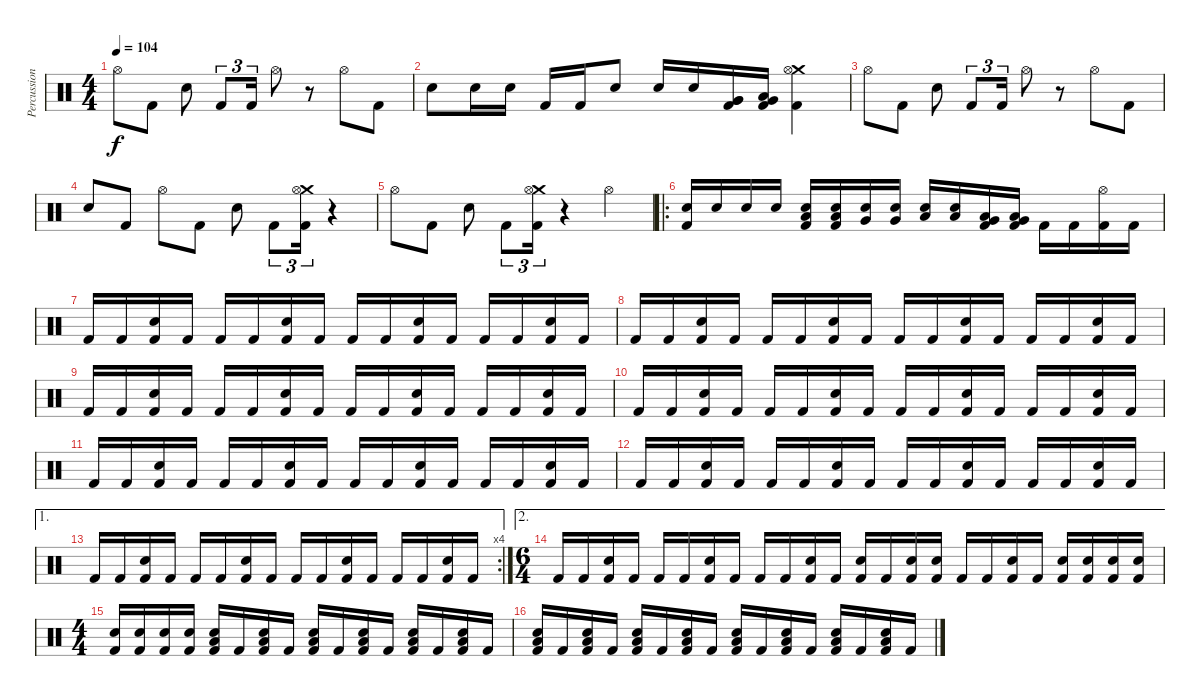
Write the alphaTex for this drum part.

\track ("Percussion" "Percussion") {instrument percussion}
\staff {score}
\articulation defaults
\ts (4 4)
\tempo 104
\clef neutral
\ks c "Hi-Hat (open)".8{dy f} "Kick (hit) 2".8 "Snare (hit) 2".8 "Kick (hit) 2".8{tu (3 2)} "Kick (hit) 2".16{tu (3 2)} "Hi-Hat (open)".8
r.8 "Hi-Hat (open)".8 "Kick (hit) 2".8 |
"Snare (hit) 2".8 "Snare (hit) 2".16 "Snare (hit) 2".16 "Kick (hit) 2".16 "Kick (hit) 2".16 "Snare (hit) 2".8 "Snare (hit) 2".16 "Snare (hit) 2".16 ("Very Low Tom (hit)" "Very Low Tom (hit)" "Kick (hit) 2").16 ("Low Floor Tom (hit)" "Very Low Tom (hit)" "Kick (hit) 2").16 ("Crash medium (hit)" "Hi-Hat (open)" "Kick (hit) 2").4 |
"Hi-Hat (open)".8 "Kick (hit) 2".8 "Snare (hit) 2".8 "Kick (hit) 2".8{tu (3 2)} "Kick (hit) 2".16{tu (3 2)} "Hi-Hat (open)".8 r.8 "Hi-Hat (open)".8 "Kick (hit) 2".8 |
"Snare (hit) 2".8 "Kick (hit) 2".8 "Hi-Hat (open)".8 "Kick (hit) 2".8 "Snare (hit) 2".8 "Kick (hit) 2".8{tu (3 2)} ("Crash medium (hit)" "Hi-Hat (open)" "Kick (hit) 2").16{tu (3 2)} r.4 |
"Hi-Hat (open)".8 "Kick (hit) 2".8 "Snare (hit) 2".8 "Kick (hit) 2".8{tu (3 2)} ("Crash medium (hit)" "Hi-Hat (open)" "Kick (hit) 2").16{tu (3 2)} r.4 "Hi-Hat (open)".4 |
\ro
("Snare (hit) 2" "Kick (hit) 2").16 "Snare (hit) 2".16 "Snare (hit) 2".16 "Snare (hit) 2".16 ("Low Tom (hit)" "Snare (hit) 2" "Kick (hit) 2").16 ("Low Tom (hit)" "Snare (hit) 2" "Kick (hit) 2").16 ("Very Low Tom (hit)" "Snare (hit) 2").16 ("Very Low Tom (hit)" "Snare (hit) 2").16 ("Low Floor Tom (hit)" "Snare (hit) 2").16 ("Low Floor Tom (hit)" "Snare (hit) 2").16 ("Very Low Tom (hit)" "Low Floor Tom (hit)" "Kick (hit) 2").16 ("Very Low Tom (hit)" "Low Floor Tom (hit)" "Kick (hit) 2").16 "Kick (hit) 2".16 "Kick (hit) 2".16 ("Hi-Hat (open)" "Kick (hit) 2").16 "Kick (hit) 2".16 |
"Kick (hit) 2".16 "Kick (hit) 2".16 ("Snare (hit) 2" "Kick (hit) 2").16 "Kick (hit) 2".16 "Kick (hit) 2".16 "Kick (hit) 2".16 ("Snare (hit) 2" "Kick (hit) 2").16 "Kick (hit) 2".16 "Kick (hit) 2".16 "Kick (hit) 2".16 ("Snare (hit) 2" "Kick (hit) 2").16 "Kick (hit) 2".16 "Kick (hit) 2".16 "Kick (hit) 2".16 ("Snare (hit) 2" "Kick (hit) 2").16 "Kick (hit) 2".16 |
"Kick (hit) 2".16 "Kick (hit) 2".16 ("Snare (hit) 2" "Kick (hit) 2").16 "Kick (hit) 2".16 "Kick (hit) 2".16 "Kick (hit) 2".16 ("Snare (hit) 2" "Kick (hit) 2").16 "Kick (hit) 2".16 "Kick (hit) 2".16 "Kick (hit) 2".16 ("Snare (hit) 2" "Kick (hit) 2").16 "Kick (hit) 2".16 "Kick (hit) 2".16 "Kick (hit) 2".16 ("Snare (hit) 2" "Kick (hit) 2").16 "Kick (hit) 2".16 |
"Kick (hit) 2".16 "Kick (hit) 2".16 ("Snare (hit) 2" "Kick (hit) 2").16 "Kick (hit) 2".16 "Kick (hit) 2".16 "Kick (hit) 2".16 ("Snare (hit) 2" "Kick (hit) 2").16 "Kick (hit) 2".16 "Kick (hit) 2".16 "Kick (hit) 2".16 ("Snare (hit) 2" "Kick (hit) 2").16 "Kick (hit) 2".16 "Kick (hit) 2".16 "Kick (hit) 2".16 ("Snare (hit) 2" "Kick (hit) 2").16 "Kick (hit) 2".16 |
"Kick (hit) 2".16 "Kick (hit) 2".16 ("Snare (hit) 2" "Kick (hit) 2").16 "Kick (hit) 2".16 "Kick (hit) 2".16 "Kick (hit) 2".16 ("Snare (hit) 2" "Kick (hit) 2").16 "Kick (hit) 2".16 "Kick (hit) 2".16 "Kick (hit) 2".16 ("Snare (hit) 2" "Kick (hit) 2").16 "Kick (hit) 2".16 "Kick (hit) 2".16 "Kick (hit) 2".16 ("Snare (hit) 2" "Kick (hit) 2").16 "Kick (hit) 2".16 |
"Kick (hit) 2".16 "Kick (hit) 2".16 ("Snare (hit) 2" "Kick (hit) 2").16 "Kick (hit) 2".16 "Kick (hit) 2".16 "Kick (hit) 2".16 ("Snare (hit) 2" "Kick (hit) 2").16 "Kick (hit) 2".16 "Kick (hit) 2".16 "Kick (hit) 2".16 ("Snare (hit) 2" "Kick (hit) 2").16 "Kick (hit) 2".16 "Kick (hit) 2".16 "Kick (hit) 2".16 ("Snare (hit) 2" "Kick (hit) 2").16 "Kick (hit) 2".16 |
"Kick (hit) 2".16 "Kick (hit) 2".16 ("Snare (hit) 2" "Kick (hit) 2").16 "Kick (hit) 2".16 "Kick (hit) 2".16 "Kick (hit) 2".16 ("Snare (hit) 2" "Kick (hit) 2").16 "Kick (hit) 2".16 "Kick (hit) 2".16 "Kick (hit) 2".16 ("Snare (hit) 2" "Kick (hit) 2").16 "Kick (hit) 2".16 "Kick (hit) 2".16 "Kick (hit) 2".16 ("Snare (hit) 2" "Kick (hit) 2").16 "Kick (hit) 2".16 |
\ae 1
\rc 4 "Kick (hit) 2".16 "Kick (hit) 2".16
("Snare (hit) 2" "Kick (hit) 2").16 "Kick (hit) 2".16 "Kick (hit) 2".16 "Kick (hit) 2".16 ("Snare (hit) 2" "Kick (hit) 2").16 "Kick (hit) 2".16 "Kick (hit) 2".16 "Kick (hit) 2".16 ("Snare (hit) 2" "Kick (hit) 2").16 "Kick (hit) 2".16 "Kick (hit) 2".16 "Kick (hit) 2".16 ("Snare (hit) 2" "Kick (hit) 2").16 "Kick (hit) 2".16 |
\ae 2
\ts (6 4)
"Kick (hit) 2".16 "Kick (hit) 2".16 ("Snare (hit) 2" "Kick (hit) 2").16 "Kick (hit) 2".16 "Kick (hit) 2".16 "Kick (hit) 2".16 ("Snare (hit) 2" "Kick (hit) 2").16 "Kick (hit) 2".16 "Kick (hit) 2".16 "Kick (hit) 2".16 ("Snare (hit) 2" "Kick (hit) 2").16 "Kick (hit) 2".16 ("Snare (hit) 2" "Kick (hit) 2").16 "Kick (hit) 2".16 ("Snare (hit) 2" "Kick (hit) 2").16 ("Snare (hit) 2" "Kick (hit) 2").16 "Kick (hit) 2".16 "Kick (hit) 2".16 ("Snare (hit) 2" "Kick (hit) 2").16 "Kick (hit) 2".16 ("Snare (hit) 2" "Kick (hit) 2").16 ("Snare (hit) 2" "Kick (hit) 2").16 ("Snare (hit) 2" "Kick (hit) 2").16 ("Snare (hit) 2" "Kick (hit) 2").16 |
\ts (4 4)
("Snare (hit) 2" "Kick (hit) 2").16 ("Snare (hit) 2" "Kick (hit) 2").16 ("Snare (hit) 2" "Kick (hit) 2").16 ("Snare (hit) 2" "Kick (hit) 2").16 ("Low Floor Tom (hit)" "Snare (hit) 2" "Kick (hit) 2").16 "Kick (hit) 2".16 ("Low Floor Tom (hit)" "Snare (hit) 2" "Kick (hit) 2").16 "Kick (hit) 2".16 ("Low Floor Tom (hit)" "Snare (hit) 2" "Kick (hit) 2").16 "Kick (hit) 2".16 ("Low Floor Tom (hit)" "Snare (hit) 2" "Kick (hit) 2").16 "Kick (hit) 2".16 ("Low Floor Tom (hit)" "Snare (hit) 2" "Kick (hit) 2").16 "Kick (hit) 2".16 ("Low Floor Tom (hit)" "Snare (hit) 2" "Kick (hit) 2").16 "Kick (hit) 2".16 |
("Low Floor Tom (hit)" "Snare (hit) 2" "Kick (hit) 2").16 "Kick (hit) 2".16 ("Low Floor Tom (hit)" "Snare (hit) 2" "Kick (hit) 2").16 "Kick (hit) 2".16 ("Low Floor Tom (hit)" "Snare (hit) 2" "Kick (hit) 2").16 "Kick (hit) 2".16 ("Low Floor Tom (hit)" "Snare (hit) 2" "Kick (hit) 2").16 "Kick (hit) 2".16 ("Low Floor Tom (hit)" "Snare (hit) 2" "Kick (hit) 2").16 "Kick (hit) 2".16 ("Low Floor Tom (hit)" "Snare (hit) 2" "Kick (hit) 2").16 "Kick (hit) 2".16 ("Low Floor Tom (hit)" "Snare (hit) 2" "Kick (hit) 2").16 "Kick (hit) 2".16 ("Low Floor Tom (hit)" "Snare (hit) 2" "Kick (hit) 2").16 "Kick (hit) 2".16
